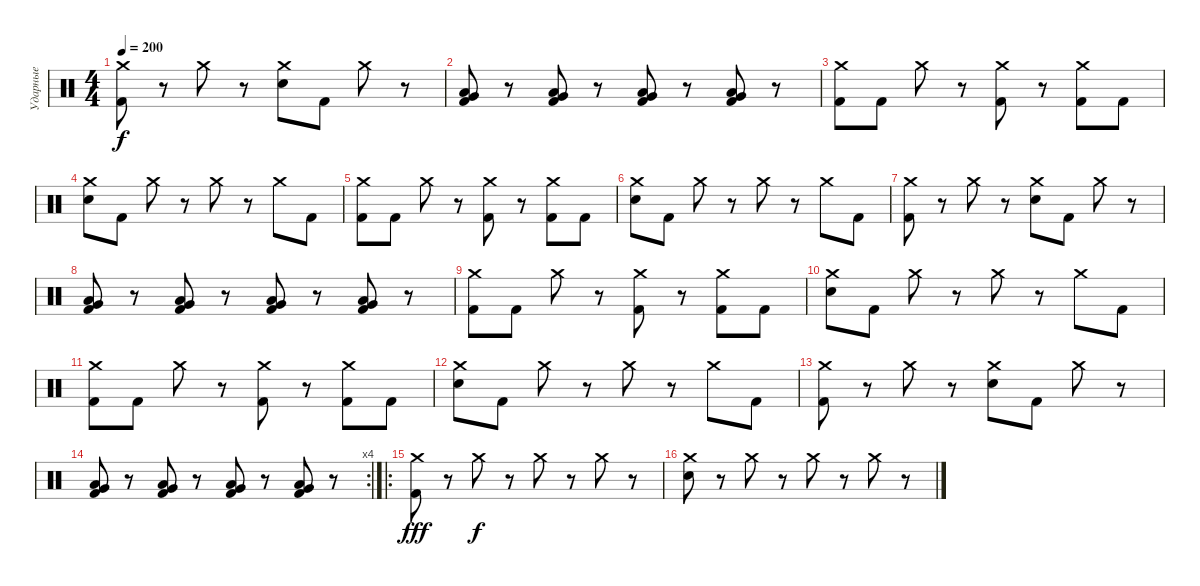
\track ("Ударные" "Ударные") {instrument percussion}
\staff {score}
\articulation defaults
\ts (4 4)
\tempo 200
\clef neutral
\ks c
("Crash medium (hit)" "Kick (hit) 2").8{dy f} r.8 "Crash medium (hit)".8 r.8 ("Crash medium (hit)" "Electric Snare (hit)").8 "Kick (hit) 2".8 "Crash medium (hit)".8 r.8 |
("Low Floor Tom (hit)" "Very Low Tom (hit)" "Kick (hit) 2").8 r.8 ("Low Floor Tom (hit)" "Very Low Tom (hit)" "Kick (hit) 2").8 r.8 ("Low Floor Tom (hit)" "Very Low Tom (hit)" "Kick (hit) 2").8 r.8 ("Low Floor Tom (hit)" "Very Low Tom (hit)" "Kick (hit) 2").8 r.8 |
("Crash medium (hit)" "Kick (hit) 2").8 "Kick (hit) 2".8 "Crash medium (hit)".8 r.8 ("Crash medium (hit)" "Kick (hit) 2").8 r.8 ("Crash medium (hit)" "Kick (hit) 2").8 "Kick (hit) 2".8 |
("Crash medium (hit)" "Electric Snare (hit)").8 "Kick (hit) 2".8 "Crash medium (hit)".8 r.8 "Crash medium (hit)".8 r.8 "Crash medium (hit)".8 "Kick (hit) 2".8 |
("Crash medium (hit)" "Kick (hit) 2").8 "Kick (hit) 2".8 "Crash medium (hit)".8 r.8 ("Crash medium (hit)" "Kick (hit) 2").8 r.8 ("Crash medium (hit)" "Kick (hit) 2").8 "Kick (hit) 2".8 |
("Crash medium (hit)" "Electric Snare (hit)").8 "Kick (hit) 2".8 "Crash medium (hit)".8 r.8 "Crash medium (hit)".8 r.8 "Crash medium (hit)".8 "Kick (hit) 2".8 |
("Crash medium (hit)" "Kick (hit) 2").8 r.8 "Crash medium (hit)".8 r.8 ("Crash medium (hit)" "Electric Snare (hit)").8 "Kick (hit) 2".8 "Crash medium (hit)".8 r.8 |
("Low Floor Tom (hit)" "Very Low Tom (hit)" "Kick (hit) 2").8 r.8 ("Low Floor Tom (hit)" "Very Low Tom (hit)" "Kick (hit) 2").8 r.8 ("Low Floor Tom (hit)" "Very Low Tom (hit)" "Kick (hit) 2").8 r.8 ("Low Floor Tom (hit)" "Very Low Tom (hit)" "Kick (hit) 2").8 r.8 |
("Crash medium (hit)" "Kick (hit) 2").8 "Kick (hit) 2".8 "Crash medium (hit)".8 r.8 ("Crash medium (hit)" "Kick (hit) 2").8 r.8 ("Crash medium (hit)" "Kick (hit) 2").8 "Kick (hit) 2".8 |
("Crash medium (hit)" "Electric Snare (hit)").8 "Kick (hit) 2".8 "Crash medium (hit)".8 r.8 "Crash medium (hit)".8 r.8 "Crash medium (hit)".8 "Kick (hit) 2".8 |
("Crash medium (hit)" "Kick (hit) 2").8 "Kick (hit) 2".8 "Crash medium (hit)".8 r.8 ("Crash medium (hit)" "Kick (hit) 2").8 r.8 ("Crash medium (hit)" "Kick (hit) 2").8 "Kick (hit) 2".8 |
("Crash medium (hit)" "Electric Snare (hit)").8 "Kick (hit) 2".8 "Crash medium (hit)".8 r.8 "Crash medium (hit)".8 r.8 "Crash medium (hit)".8 "Kick (hit) 2".8 |
("Crash medium (hit)" "Kick (hit) 2").8 r.8 "Crash medium (hit)".8 r.8 ("Crash medium (hit)" "Electric Snare (hit)").8 "Kick (hit) 2".8 "Crash medium (hit)".8 r.8 |
\rc 4
("Low Floor Tom (hit)" "Very Low Tom (hit)" "Kick (hit) 2").8 r.8 ("Low Floor Tom (hit)" "Very Low Tom (hit)" "Kick (hit) 2").8 r.8 ("Low Floor Tom (hit)" "Very Low Tom (hit)" "Kick (hit) 2").8 r.8 ("Low Floor Tom (hit)" "Very Low Tom (hit)" "Kick (hit) 2").8 r.8 |
\ro
("Crash medium (hit)" "Kick (hit) 2").8{dy fff} r.8 "Crash medium (hit)".8{dy f} r.8 "Crash medium (hit)".8 r.8 "Crash medium (hit)".8 r.8 |
("Crash medium (hit)" "Electric Snare (hit)").8 r.8 "Crash medium (hit)".8 r.8 "Crash medium (hit)".8 r.8 "Crash medium (hit)".8 r.8
